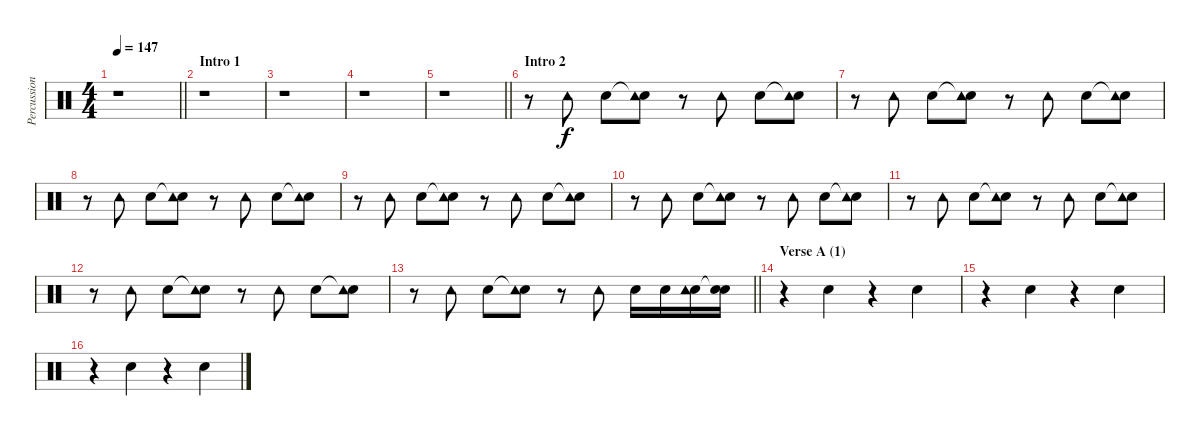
\track ("Percussion" "Percussion") {instrument percussion}
\staff {score}
\articulation defaults
\ts (4 4)
\tempo 147
\clef neutral
\barLineRight lightlight
\ks aminor
r.1{dy f} |
\section ("" "Intro 1")
r.1 |
r.1 |
r.1 |
\barLineRight lightlight
r.1 |
\section ("" "Intro 2")
r.8 "Tambourine (hit)".8 "Hand Clap (hit)".8 ("Snare (hit)"{t} "Tambourine (hit)").8 r.8 "Tambourine (hit)".8 "Hand Clap (hit)".8 ("Snare (hit)"{t} "Tambourine (hit)").8 |
r.8 "Tambourine (hit)".8 "Hand Clap (hit)".8 ("Snare (hit)"{t} "Tambourine (hit)").8 r.8 "Tambourine (hit)".8 "Hand Clap (hit)".8 ("Snare (hit)"{t} "Tambourine (hit)").8 |
r.8 "Tambourine (hit)".8 "Hand Clap (hit)".8 ("Snare (hit)"{t} "Tambourine (hit)").8 r.8 "Tambourine (hit)".8 "Hand Clap (hit)".8 ("Snare (hit)"{t} "Tambourine (hit)").8 |
r.8 "Tambourine (hit)".8 "Hand Clap (hit)".8 ("Snare (hit)"{t} "Tambourine (hit)").8 r.8 "Tambourine (hit)".8 "Hand Clap (hit)".8 ("Snare (hit)"{t} "Tambourine (hit)").8 |
r.8 "Tambourine (hit)".8 "Hand Clap (hit)".8 ("Snare (hit)"{t} "Tambourine (hit)").8 r.8 "Tambourine (hit)".8 "Hand Clap (hit)".8 ("Snare (hit)"{t} "Tambourine (hit)").8 |
r.8 "Tambourine (hit)".8 "Hand Clap (hit)".8 ("Snare (hit)"{t} "Tambourine (hit)").8 r.8 "Tambourine (hit)".8 "Hand Clap (hit)".8 ("Snare (hit)"{t} "Tambourine (hit)").8 |
r.8 "Tambourine (hit)".8 "Hand Clap (hit)".8 ("Snare (hit)"{t} "Tambourine (hit)").8 r.8 "Tambourine (hit)".8 "Hand Clap (hit)".8 ("Snare (hit)"{t} "Tambourine (hit)").8 |
\barLineRight lightlight
r.8 "Tambourine (hit)".8 "Hand Clap (hit)".8 ("Snare (hit)"{t} "Tambourine (hit)").8 r.8 "Tambourine (hit)".8 "Hand Clap (hit)".16 "Hand Clap (hit)".16 ("Hand Clap (hit)" "Tambourine (hit)").16 ("Hand Clap (hit)" "Snare (hit)"{t}).16 |
\section ("" "Verse A (1)")
r.4 "Hand Clap (hit)".4 r.4 "Hand Clap (hit)".4 |
r.4 "Hand Clap (hit)".4 r.4 "Hand Clap (hit)".4 |
r.4 "Hand Clap (hit)".4 r.4 "Hand Clap (hit)".4
